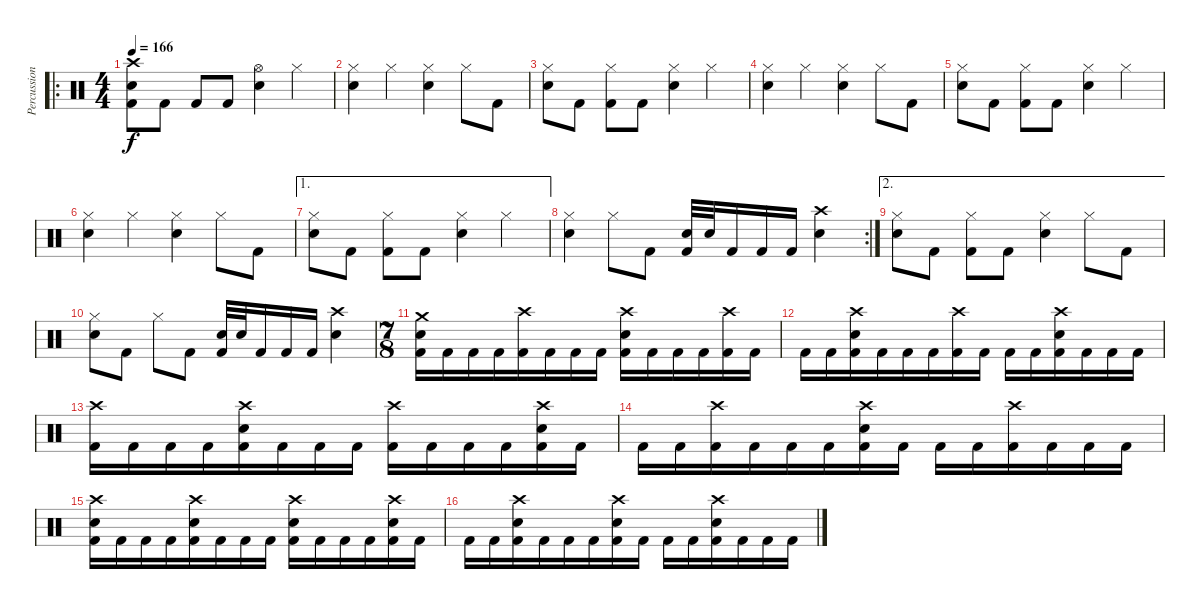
\track ("Percussion" "Percussion") {instrument percussion}
\staff {score}
\articulation defaults
\ro
\ts (4 4)
\tempo 166
\clef neutral
\ks c
("Crash high (hit)" "Electric Snare (hit)" "Kick (hit) 2").8{dy f} "Kick (hit) 2".8 "Kick (hit) 2".8 "Kick (hit) 2".8 ("Hi-Hat (open)" "Electric Snare (hit)").4 "Hi-Hat (closed)".4 |
("Hi-Hat (closed)" "Electric Snare (hit)").4 "Hi-Hat (closed)".4 ("Hi-Hat (closed)" "Electric Snare (hit)").4 "Hi-Hat (closed)".8 "Kick (hit) 2".8 |
("Hi-Hat (closed)" "Electric Snare (hit)").8 "Kick (hit) 2".8 ("Hi-Hat (closed)" "Kick (hit) 2").8 "Kick (hit) 2".8 ("Hi-Hat (closed)" "Electric Snare (hit)").4 "Hi-Hat (closed)".4 |
("Hi-Hat (closed)" "Electric Snare (hit)").4 "Hi-Hat (closed)".4 ("Hi-Hat (closed)" "Electric Snare (hit)").4 "Hi-Hat (closed)".8 "Kick (hit) 2".8 |
("Hi-Hat (closed)" "Electric Snare (hit)").8 "Kick (hit) 2".8 ("Hi-Hat (closed)" "Kick (hit) 2").8 "Kick (hit) 2".8 ("Hi-Hat (closed)" "Electric Snare (hit)").4 "Hi-Hat (closed)".4 |
("Hi-Hat (closed)" "Electric Snare (hit)").4 "Hi-Hat (closed)".4 ("Hi-Hat (closed)" "Electric Snare (hit)").4 "Hi-Hat (closed)".8 "Kick (hit) 2".8 |
\ae 1
("Hi-Hat (closed)" "Electric Snare (hit)").8 "Kick (hit) 2".8 ("Hi-Hat (closed)" "Kick (hit) 2").8 "Kick (hit) 2".8 ("Hi-Hat (closed)" "Electric Snare (hit)").4 "Hi-Hat (closed)".4 |
\rc 2
("Hi-Hat (closed)" "Electric Snare (hit)").4 "Hi-Hat (closed)".8 "Kick (hit) 2".8 ("Electric Snare (hit)" "Kick (hit) 2").32 "Electric Snare (hit)".32 "Kick (hit) 2".16 "Kick (hit) 2".16 "Kick (hit) 2".16 ("Crash high (hit)" "Electric Snare (hit)").4 |
\ae 2
("Hi-Hat (closed)" "Electric Snare (hit)").8 "Kick (hit) 2".8 ("Hi-Hat (closed)" "Kick (hit) 2").8 "Kick (hit) 2".8 ("Hi-Hat (closed)" "Electric Snare (hit)").4 "Hi-Hat (closed)".8 "Kick (hit) 2".8 |
("Hi-Hat (closed)" "Electric Snare (hit)").8 "Kick (hit) 2".8 "Hi-Hat (closed)".8 "Kick (hit) 2".8 ("Electric Snare (hit)" "Kick (hit) 2").32 "Electric Snare (hit)".32 "Kick (hit) 2".16 "Kick (hit) 2".16 "Kick (hit) 2".16 ("Crash high (hit)" "Electric Snare (hit)").4 |
\ts (7 8)
("Crash medium (hit)" "Electric Snare (hit)" "Kick (hit) 2").16 "Kick (hit) 2".16 "Kick (hit) 2".16 "Kick (hit) 2".16 ("Crash high (hit)" "Kick (hit) 2").16 "Kick (hit) 2".16 "Kick (hit) 2".16 "Kick (hit) 2".16 ("Crash high (hit)" "Electric Snare (hit)" "Kick (hit) 2").16 "Kick (hit) 2".16 "Kick (hit) 2".16 "Kick (hit) 2".16 ("Crash high (hit)" "Kick (hit) 2").16 "Kick (hit) 2".16 |
"Kick (hit) 2".16 "Kick (hit) 2".16 ("Crash high (hit)" "Electric Snare (hit)" "Kick (hit) 2").16 "Kick (hit) 2".16 "Kick (hit) 2".16 "Kick (hit) 2".16 ("Crash high (hit)" "Kick (hit) 2").16 "Kick (hit) 2".16 "Kick (hit) 2".16 "Kick (hit) 2".16 ("Crash high (hit)" "Electric Snare (hit)" "Kick (hit) 2").16 "Kick (hit) 2".16 "Kick (hit) 2".16 "Kick (hit) 2".16 |
("Crash high (hit)" "Kick (hit) 2").16 "Kick (hit) 2".16 "Kick (hit) 2".16 "Kick (hit) 2".16 ("Crash high (hit)" "Electric Snare (hit)" "Kick (hit) 2").16 "Kick (hit) 2".16 "Kick (hit) 2".16 "Kick (hit) 2".16 ("Crash high (hit)" "Kick (hit) 2").16 "Kick (hit) 2".16 "Kick (hit) 2".16 "Kick (hit) 2".16 ("Crash high (hit)" "Electric Snare (hit)" "Kick (hit) 2").16 "Kick (hit) 2".16 |
"Kick (hit) 2".16 "Kick (hit) 2".16 ("Crash high (hit)" "Kick (hit) 2").16 "Kick (hit) 2".16 "Kick (hit) 2".16 "Kick (hit) 2".16 ("Crash high (hit)" "Electric Snare (hit)" "Kick (hit) 2").16 "Kick (hit) 2".16 "Kick (hit) 2".16 "Kick (hit) 2".16 ("Crash high (hit)" "Kick (hit) 2").16 "Kick (hit) 2".16 "Kick (hit) 2".16 "Kick (hit) 2".16 |
("Crash high (hit)" "Electric Snare (hit)" "Kick (hit) 2").16 "Kick (hit) 2".16 "Kick (hit) 2".16 "Kick (hit) 2".16 ("Crash high (hit)" "Electric Snare (hit)" "Kick (hit) 2").16 "Kick (hit) 2".16 "Kick (hit) 2".16 "Kick (hit) 2".16 ("Crash high (hit)" "Electric Snare (hit)" "Kick (hit) 2").16 "Kick (hit) 2".16 "Kick (hit) 2".16 "Kick (hit) 2".16 ("Crash high (hit)" "Electric Snare (hit)" "Kick (hit) 2").16 "Kick (hit) 2".16 |
"Kick (hit) 2".16 "Kick (hit) 2".16 ("Crash high (hit)" "Electric Snare (hit)" "Kick (hit) 2").16 "Kick (hit) 2".16 "Kick (hit) 2".16 "Kick (hit) 2".16 ("Crash high (hit)" "Electric Snare (hit)" "Kick (hit) 2").16 "Kick (hit) 2".16 "Kick (hit) 2".16 "Kick (hit) 2".16 ("Crash high (hit)" "Electric Snare (hit)" "Kick (hit) 2").16 "Kick (hit) 2".16 "Kick (hit) 2".16 "Kick (hit) 2".16
